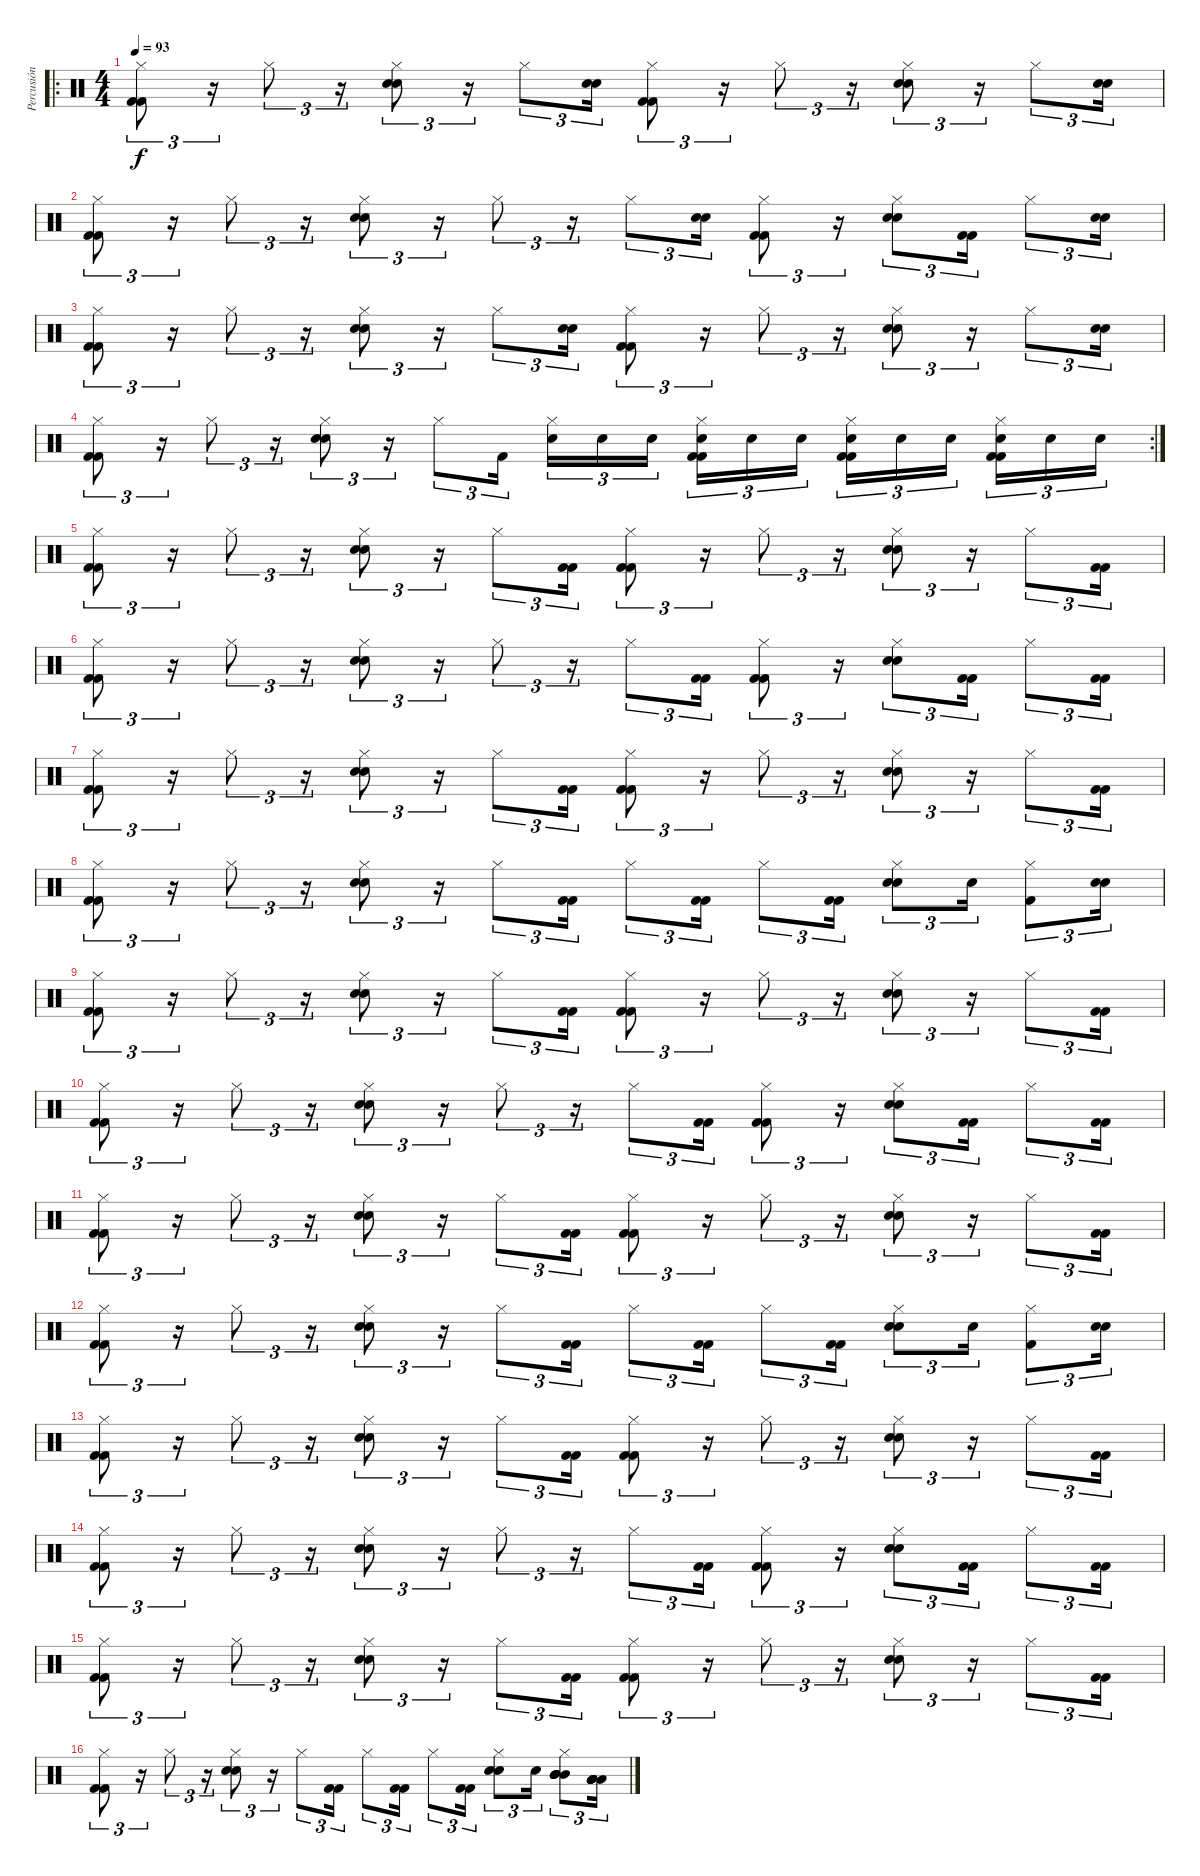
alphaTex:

\track ("Percusión" "Percusión") {instrument percussion}
\staff {score}
\articulation defaults
\ro
\ts (4 4)
\tempo 93
\clef neutral
\ks c
("Hi-Hat (closed)" "Kick (hit) 2" "Kick (hit) 2").8{tu (3 2) dy f} r.16{tu (3 2)} "Hi-Hat (closed)".8{tu (3 2)} r.16{tu (3 2)} ("Hi-Hat (closed)" "Electric Snare (hit)" "Electric Snare (hit)").8{tu (3 2)} r.16{tu (3 2)} "Hi-Hat (closed)".8{tu (3 2)} ("Electric Snare (hit)" "Electric Snare (hit)").16{tu (3 2)} ("Hi-Hat (closed)" "Kick (hit) 2" "Kick (hit) 2").8{tu (3 2)} r.16{tu (3 2)} "Hi-Hat (closed)".8{tu (3 2)} r.16{tu (3 2)} ("Hi-Hat (closed)" "Electric Snare (hit)" "Electric Snare (hit)").8{tu (3 2)} r.16{tu (3 2)} "Hi-Hat (closed)".8{tu (3 2)} ("Electric Snare (hit)" "Electric Snare (hit)").16{tu (3 2)} |
("Hi-Hat (closed)" "Kick (hit) 2" "Kick (hit) 2").8{tu (3 2)} r.16{tu (3 2)} "Hi-Hat (closed)".8{tu (3 2)} r.16{tu (3 2)} ("Hi-Hat (closed)" "Electric Snare (hit)" "Electric Snare (hit)").8{tu (3 2)} r.16{tu (3 2)} "Hi-Hat (closed)".8{tu (3 2)} r.16{tu (3 2)} "Hi-Hat (closed)".8{tu (3 2)} ("Electric Snare (hit)" "Electric Snare (hit)").16{tu (3 2)} ("Hi-Hat (closed)" "Kick (hit) 2" "Kick (hit) 2").8{tu (3 2)} r.16{tu (3 2)} ("Hi-Hat (closed)" "Electric Snare (hit)" "Electric Snare (hit)").8{tu (3 2)} ("Kick (hit) 2" "Kick (hit) 2").16{tu (3 2)} "Hi-Hat (closed)".8{tu (3 2)} ("Electric Snare (hit)" "Electric Snare (hit)").16{tu (3 2)} |
("Hi-Hat (closed)" "Kick (hit) 2" "Kick (hit) 2").8{tu (3 2)} r.16{tu (3 2)} "Hi-Hat (closed)".8{tu (3 2)} r.16{tu (3 2)} ("Hi-Hat (closed)" "Electric Snare (hit)" "Electric Snare (hit)").8{tu (3 2)} r.16{tu (3 2)} "Hi-Hat (closed)".8{tu (3 2)} ("Electric Snare (hit)" "Electric Snare (hit)").16{tu (3 2)} ("Hi-Hat (closed)" "Kick (hit) 2" "Kick (hit) 2").8{tu (3 2)} r.16{tu (3 2)} "Hi-Hat (closed)".8{tu (3 2)} r.16{tu (3 2)} ("Hi-Hat (closed)" "Electric Snare (hit)" "Electric Snare (hit)").8{tu (3 2)} r.16{tu (3 2)} "Hi-Hat (closed)".8{tu (3 2)} ("Electric Snare (hit)" "Electric Snare (hit)").16{tu (3 2)} |
\rc 2
("Hi-Hat (closed)" "Kick (hit) 2" "Kick (hit) 2").8{tu (3 2)} r.16{tu (3 2)} "Hi-Hat (closed)".8{tu (3 2)} r.16{tu (3 2)} ("Hi-Hat (closed)" "Electric Snare (hit)" "Electric Snare (hit)").8{tu (3 2)} r.16{tu (3 2)} "Hi-Hat (closed)".8{tu (3 2)} "Kick (hit) 2".16{tu (3 2)} ("Hi-Hat (closed)" "Electric Snare (hit)").16{tu (3 2)} "Electric Snare (hit)".16{tu (3 2)} "Electric Snare (hit)".16{tu (3 2)} ("Hi-Hat (closed)" "Electric Snare (hit)" "Kick (hit) 2" "Kick (hit) 2").16{tu (3 2)} "Electric Snare (hit)".16{tu (3 2)} "Electric Snare (hit)".16{tu (3 2)} ("Hi-Hat (closed)" "Electric Snare (hit)" "Kick (hit) 2" "Kick (hit) 2").16{tu (3 2)} "Electric Snare (hit)".16{tu (3 2)} "Electric Snare (hit)".16{tu (3 2)} ("Hi-Hat (closed)" "Electric Snare (hit)" "Kick (hit) 2" "Kick (hit) 2").16{tu (3 2)} "Electric Snare (hit)".16{tu (3 2)} "Electric Snare (hit)".16{tu (3 2)} |
("Hi-Hat (closed)" "Kick (hit) 2" "Kick (hit) 2").8{tu (3 2)} r.16{tu (3 2)} "Hi-Hat (closed)".8{tu (3 2)} r.16{tu (3 2)} ("Hi-Hat (closed)" "Electric Snare (hit)" "Electric Snare (hit)").8{tu (3 2)} r.16{tu (3 2)} "Hi-Hat (closed)".8{tu (3 2)} ("Kick (hit) 2" "Kick (hit) 2").16{tu (3 2)} ("Hi-Hat (closed)" "Kick (hit) 2" "Kick (hit) 2").8{tu (3 2)} r.16{tu (3 2)} "Hi-Hat (closed)".8{tu (3 2)} r.16{tu (3 2)} ("Hi-Hat (closed)" "Electric Snare (hit)" "Electric Snare (hit)").8{tu (3 2)} r.16{tu (3 2)} "Hi-Hat (closed)".8{tu (3 2)} ("Kick (hit) 2" "Kick (hit) 2").16{tu (3 2)} |
("Hi-Hat (closed)" "Kick (hit) 2" "Kick (hit) 2").8{tu (3 2)} r.16{tu (3 2)} "Hi-Hat (closed)".8{tu (3 2)} r.16{tu (3 2)} ("Hi-Hat (closed)" "Electric Snare (hit)" "Electric Snare (hit)").8{tu (3 2)} r.16{tu (3 2)} "Hi-Hat (closed)".8{tu (3 2)} r.16{tu (3 2)} "Hi-Hat (closed)".8{tu (3 2)} ("Kick (hit) 2" "Kick (hit) 2").16{tu (3 2)} ("Hi-Hat (closed)" "Kick (hit) 2" "Kick (hit) 2").8{tu (3 2)} r.16{tu (3 2)} ("Hi-Hat (closed)" "Electric Snare (hit)" "Electric Snare (hit)").8{tu (3 2)} ("Kick (hit) 2" "Kick (hit) 2").16{tu (3 2)} "Hi-Hat (closed)".8{tu (3 2)} ("Kick (hit) 2" "Kick (hit) 2").16{tu (3 2)} |
("Hi-Hat (closed)" "Kick (hit) 2" "Kick (hit) 2").8{tu (3 2)} r.16{tu (3 2)} "Hi-Hat (closed)".8{tu (3 2)} r.16{tu (3 2)} ("Hi-Hat (closed)" "Electric Snare (hit)" "Electric Snare (hit)").8{tu (3 2)} r.16{tu (3 2)} "Hi-Hat (closed)".8{tu (3 2)} ("Kick (hit) 2" "Kick (hit) 2").16{tu (3 2)} ("Hi-Hat (closed)" "Kick (hit) 2" "Kick (hit) 2").8{tu (3 2)} r.16{tu (3 2)} "Hi-Hat (closed)".8{tu (3 2)} r.16{tu (3 2)} ("Hi-Hat (closed)" "Electric Snare (hit)" "Electric Snare (hit)").8{tu (3 2)} r.16{tu (3 2)} "Hi-Hat (closed)".8{tu (3 2)} ("Kick (hit) 2" "Kick (hit) 2").16{tu (3 2)} |
("Hi-Hat (closed)" "Kick (hit) 2" "Kick (hit) 2").8{tu (3 2)} r.16{tu (3 2)} "Hi-Hat (closed)".8{tu (3 2)} r.16{tu (3 2)} ("Hi-Hat (closed)" "Electric Snare (hit)" "Electric Snare (hit)").8{tu (3 2)} r.16{tu (3 2)} "Hi-Hat (closed)".8{tu (3 2)} ("Kick (hit) 2" "Kick (hit) 2").16{tu (3 2)} "Hi-Hat (closed)".8{tu (3 2)} ("Kick (hit) 2" "Kick (hit) 2").16{tu (3 2)} "Hi-Hat (closed)".8{tu (3 2)} ("Kick (hit) 2" "Kick (hit) 2").16{tu (3 2)} ("Hi-Hat (closed)" "Electric Snare (hit)" "Electric Snare (hit)").8{tu (3 2)} "Electric Snare (hit)".16{tu (3 2)} ("Hi-Hat (closed)" "Kick (hit) 2").8{tu (3 2)} ("Electric Snare (hit)" "Electric Snare (hit)").16{tu (3 2)} |
("Hi-Hat (closed)" "Kick (hit) 2" "Kick (hit) 2").8{tu (3 2)} r.16{tu (3 2)} "Hi-Hat (closed)".8{tu (3 2)} r.16{tu (3 2)} ("Hi-Hat (closed)" "Electric Snare (hit)" "Electric Snare (hit)").8{tu (3 2)} r.16{tu (3 2)} "Hi-Hat (closed)".8{tu (3 2)} ("Kick (hit) 2" "Kick (hit) 2").16{tu (3 2)} ("Hi-Hat (closed)" "Kick (hit) 2" "Kick (hit) 2").8{tu (3 2)} r.16{tu (3 2)} "Hi-Hat (closed)".8{tu (3 2)} r.16{tu (3 2)} ("Hi-Hat (closed)" "Electric Snare (hit)" "Electric Snare (hit)").8{tu (3 2)} r.16{tu (3 2)} "Hi-Hat (closed)".8{tu (3 2)} ("Kick (hit) 2" "Kick (hit) 2").16{tu (3 2)} |
("Hi-Hat (closed)" "Kick (hit) 2" "Kick (hit) 2").8{tu (3 2)} r.16{tu (3 2)} "Hi-Hat (closed)".8{tu (3 2)} r.16{tu (3 2)} ("Hi-Hat (closed)" "Electric Snare (hit)" "Electric Snare (hit)").8{tu (3 2)} r.16{tu (3 2)} "Hi-Hat (closed)".8{tu (3 2)} r.16{tu (3 2)} "Hi-Hat (closed)".8{tu (3 2)} ("Kick (hit) 2" "Kick (hit) 2").16{tu (3 2)} ("Hi-Hat (closed)" "Kick (hit) 2" "Kick (hit) 2").8{tu (3 2)} r.16{tu (3 2)} ("Hi-Hat (closed)" "Electric Snare (hit)" "Electric Snare (hit)").8{tu (3 2)} ("Kick (hit) 2" "Kick (hit) 2").16{tu (3 2)} "Hi-Hat (closed)".8{tu (3 2)} ("Kick (hit) 2" "Kick (hit) 2").16{tu (3 2)} |
("Hi-Hat (closed)" "Kick (hit) 2" "Kick (hit) 2").8{tu (3 2)} r.16{tu (3 2)} "Hi-Hat (closed)".8{tu (3 2)} r.16{tu (3 2)} ("Hi-Hat (closed)" "Electric Snare (hit)" "Electric Snare (hit)").8{tu (3 2)} r.16{tu (3 2)} "Hi-Hat (closed)".8{tu (3 2)} ("Kick (hit) 2" "Kick (hit) 2").16{tu (3 2)} ("Hi-Hat (closed)" "Kick (hit) 2" "Kick (hit) 2").8{tu (3 2)} r.16{tu (3 2)} "Hi-Hat (closed)".8{tu (3 2)} r.16{tu (3 2)} ("Hi-Hat (closed)" "Electric Snare (hit)" "Electric Snare (hit)").8{tu (3 2)} r.16{tu (3 2)} "Hi-Hat (closed)".8{tu (3 2)} ("Kick (hit) 2" "Kick (hit) 2").16{tu (3 2)} |
("Hi-Hat (closed)" "Kick (hit) 2" "Kick (hit) 2").8{tu (3 2)} r.16{tu (3 2)} "Hi-Hat (closed)".8{tu (3 2)} r.16{tu (3 2)} ("Hi-Hat (closed)" "Electric Snare (hit)" "Electric Snare (hit)").8{tu (3 2)} r.16{tu (3 2)} "Hi-Hat (closed)".8{tu (3 2)} ("Kick (hit) 2" "Kick (hit) 2").16{tu (3 2)} "Hi-Hat (closed)".8{tu (3 2)} ("Kick (hit) 2" "Kick (hit) 2").16{tu (3 2)} "Hi-Hat (closed)".8{tu (3 2)} ("Kick (hit) 2" "Kick (hit) 2").16{tu (3 2)} ("Hi-Hat (closed)" "Electric Snare (hit)" "Electric Snare (hit)").8{tu (3 2)} "Electric Snare (hit)".16{tu (3 2)} ("Hi-Hat (closed)" "Kick (hit) 2").8{tu (3 2)} ("Electric Snare (hit)" "Electric Snare (hit)").16{tu (3 2)} |
("Hi-Hat (closed)" "Kick (hit) 2" "Kick (hit) 2").8{tu (3 2)} r.16{tu (3 2)} "Hi-Hat (closed)".8{tu (3 2)} r.16{tu (3 2)} ("Hi-Hat (closed)" "Electric Snare (hit)" "Electric Snare (hit)").8{tu (3 2)} r.16{tu (3 2)} "Hi-Hat (closed)".8{tu (3 2)} ("Kick (hit) 2" "Kick (hit) 2").16{tu (3 2)} ("Hi-Hat (closed)" "Kick (hit) 2" "Kick (hit) 2").8{tu (3 2)} r.16{tu (3 2)} "Hi-Hat (closed)".8{tu (3 2)} r.16{tu (3 2)} ("Hi-Hat (closed)" "Electric Snare (hit)" "Electric Snare (hit)").8{tu (3 2)} r.16{tu (3 2)} "Hi-Hat (closed)".8{tu (3 2)} ("Kick (hit) 2" "Kick (hit) 2").16{tu (3 2)} |
("Hi-Hat (closed)" "Kick (hit) 2" "Kick (hit) 2").8{tu (3 2)} r.16{tu (3 2)} "Hi-Hat (closed)".8{tu (3 2)} r.16{tu (3 2)} ("Hi-Hat (closed)" "Electric Snare (hit)" "Electric Snare (hit)").8{tu (3 2)} r.16{tu (3 2)} "Hi-Hat (closed)".8{tu (3 2)} r.16{tu (3 2)} "Hi-Hat (closed)".8{tu (3 2)} ("Kick (hit) 2" "Kick (hit) 2").16{tu (3 2)} ("Hi-Hat (closed)" "Kick (hit) 2" "Kick (hit) 2").8{tu (3 2)} r.16{tu (3 2)} ("Hi-Hat (closed)" "Electric Snare (hit)" "Electric Snare (hit)").8{tu (3 2)} ("Kick (hit) 2" "Kick (hit) 2").16{tu (3 2)} "Hi-Hat (closed)".8{tu (3 2)} ("Kick (hit) 2" "Kick (hit) 2").16{tu (3 2)} |
("Hi-Hat (closed)" "Kick (hit) 2" "Kick (hit) 2").8{tu (3 2)} r.16{tu (3 2)} "Hi-Hat (closed)".8{tu (3 2)} r.16{tu (3 2)} ("Hi-Hat (closed)" "Electric Snare (hit)" "Electric Snare (hit)").8{tu (3 2)} r.16{tu (3 2)} "Hi-Hat (closed)".8{tu (3 2)} ("Kick (hit) 2" "Kick (hit) 2").16{tu (3 2)} ("Hi-Hat (closed)" "Kick (hit) 2" "Kick (hit) 2").8{tu (3 2)} r.16{tu (3 2)} "Hi-Hat (closed)".8{tu (3 2)} r.16{tu (3 2)} ("Hi-Hat (closed)" "Electric Snare (hit)" "Electric Snare (hit)").8{tu (3 2)} r.16{tu (3 2)} "Hi-Hat (closed)".8{tu (3 2)} ("Kick (hit) 2" "Kick (hit) 2").16{tu (3 2)} |
("Hi-Hat (closed)" "Kick (hit) 2" "Kick (hit) 2").8{tu (3 2)} r.16{tu (3 2)} "Hi-Hat (closed)".8{tu (3 2)} r.16{tu (3 2)} ("Hi-Hat (closed)" "Electric Snare (hit)" "Electric Snare (hit)").8{tu (3 2)} r.16{tu (3 2)} "Hi-Hat (closed)".8{tu (3 2)} ("Kick (hit) 2" "Kick (hit) 2").16{tu (3 2)} "Hi-Hat (closed)".8{tu (3 2)} ("Kick (hit) 2" "Kick (hit) 2").16{tu (3 2)} "Hi-Hat (closed)".8{tu (3 2)} ("Kick (hit) 2" "Kick (hit) 2").16{tu (3 2)} ("Hi-Hat (closed)" "Electric Snare (hit)" "Electric Snare (hit)").8{tu (3 2)} "Electric Snare (hit)".16{tu (3 2)} ("Hi-Hat (closed)" "Mid Tom (hit)" "Mid Tom (hit)" "Mid Tom (hit)" "Mid Tom (hit)" "Mid Tom (hit)").8{tu (3 2)} ("Low Tom (hit)" "Low Tom (hit)" "Low Tom (hit)" "Low Tom (hit)" "Low Tom (hit)").16{tu (3 2)}
